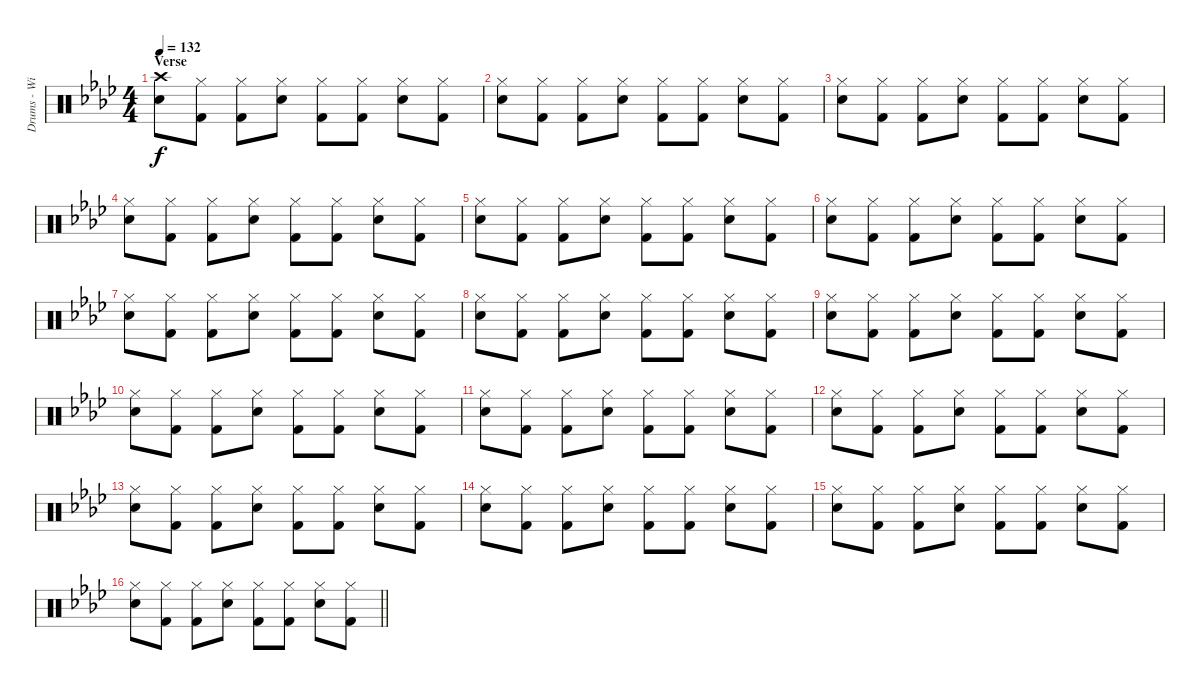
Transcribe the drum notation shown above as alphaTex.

\track ("Drums - Will" "Drums - Wi") {instrument percussion}
\staff {score}
\articulation defaults
\ts (4 4)
\section ("" "Verse")
\tempo 132
\clef neutral
\ks ab
("Crash high (hit)" "Electric Snare (hit)").8{dy f} ("Hi-Hat (closed)" "Kick (hit) 2").8 ("Hi-Hat (closed)" "Kick (hit) 2").8 ("Hi-Hat (closed)" "Electric Snare (hit)").8 ("Hi-Hat (closed)" "Kick (hit) 2").8 ("Hi-Hat (closed)" "Kick (hit) 2").8 ("Hi-Hat (closed)" "Electric Snare (hit)").8 ("Hi-Hat (closed)" "Kick (hit) 2").8 |
("Hi-Hat (closed)" "Electric Snare (hit)").8 ("Hi-Hat (closed)" "Kick (hit) 2").8 ("Hi-Hat (closed)" "Kick (hit) 2").8 ("Hi-Hat (closed)" "Electric Snare (hit)").8 ("Hi-Hat (closed)" "Kick (hit) 2").8 ("Hi-Hat (closed)" "Kick (hit) 2").8 ("Hi-Hat (closed)" "Electric Snare (hit)").8 ("Hi-Hat (closed)" "Kick (hit) 2").8 |
("Hi-Hat (closed)" "Electric Snare (hit)").8 ("Hi-Hat (closed)" "Kick (hit) 2").8 ("Hi-Hat (closed)" "Kick (hit) 2").8 ("Hi-Hat (closed)" "Electric Snare (hit)").8 ("Hi-Hat (closed)" "Kick (hit) 2").8 ("Hi-Hat (closed)" "Kick (hit) 2").8 ("Hi-Hat (closed)" "Electric Snare (hit)").8 ("Hi-Hat (closed)" "Kick (hit) 2").8 |
("Hi-Hat (closed)" "Electric Snare (hit)").8 ("Hi-Hat (closed)" "Kick (hit) 2").8 ("Hi-Hat (closed)" "Kick (hit) 2").8 ("Hi-Hat (closed)" "Electric Snare (hit)").8 ("Hi-Hat (closed)" "Kick (hit) 2").8 ("Hi-Hat (closed)" "Kick (hit) 2").8 ("Hi-Hat (closed)" "Electric Snare (hit)").8 ("Hi-Hat (closed)" "Kick (hit) 2").8 |
("Hi-Hat (closed)" "Electric Snare (hit)").8 ("Hi-Hat (closed)" "Kick (hit) 2").8 ("Hi-Hat (closed)" "Kick (hit) 2").8 ("Hi-Hat (closed)" "Electric Snare (hit)").8 ("Hi-Hat (closed)" "Kick (hit) 2").8 ("Hi-Hat (closed)" "Kick (hit) 2").8 ("Hi-Hat (closed)" "Electric Snare (hit)").8 ("Hi-Hat (closed)" "Kick (hit) 2").8 |
("Hi-Hat (closed)" "Electric Snare (hit)").8 ("Hi-Hat (closed)" "Kick (hit) 2").8 ("Hi-Hat (closed)" "Kick (hit) 2").8 ("Hi-Hat (closed)" "Electric Snare (hit)").8 ("Hi-Hat (closed)" "Kick (hit) 2").8 ("Hi-Hat (closed)" "Kick (hit) 2").8 ("Hi-Hat (closed)" "Electric Snare (hit)").8 ("Hi-Hat (closed)" "Kick (hit) 2").8 |
("Hi-Hat (closed)" "Electric Snare (hit)").8 ("Hi-Hat (closed)" "Kick (hit) 2").8 ("Hi-Hat (closed)" "Kick (hit) 2").8 ("Hi-Hat (closed)" "Electric Snare (hit)").8 ("Hi-Hat (closed)" "Kick (hit) 2").8 ("Hi-Hat (closed)" "Kick (hit) 2").8 ("Hi-Hat (closed)" "Electric Snare (hit)").8 ("Hi-Hat (closed)" "Kick (hit) 2").8 |
("Hi-Hat (closed)" "Electric Snare (hit)").8 ("Hi-Hat (closed)" "Kick (hit) 2").8 ("Hi-Hat (closed)" "Kick (hit) 2").8 ("Hi-Hat (closed)" "Electric Snare (hit)").8 ("Hi-Hat (closed)" "Kick (hit) 2").8 ("Hi-Hat (closed)" "Kick (hit) 2").8 ("Hi-Hat (closed)" "Electric Snare (hit)").8 ("Hi-Hat (closed)" "Kick (hit) 2").8 |
("Hi-Hat (closed)" "Electric Snare (hit)").8 ("Hi-Hat (closed)" "Kick (hit) 2").8 ("Hi-Hat (closed)" "Kick (hit) 2").8 ("Hi-Hat (closed)" "Electric Snare (hit)").8 ("Hi-Hat (closed)" "Kick (hit) 2").8 ("Hi-Hat (closed)" "Kick (hit) 2").8 ("Hi-Hat (closed)" "Electric Snare (hit)").8 ("Hi-Hat (closed)" "Kick (hit) 2").8 |
("Hi-Hat (closed)" "Electric Snare (hit)").8 ("Hi-Hat (closed)" "Kick (hit) 2").8 ("Hi-Hat (closed)" "Kick (hit) 2").8 ("Hi-Hat (closed)" "Electric Snare (hit)").8 ("Hi-Hat (closed)" "Kick (hit) 2").8 ("Hi-Hat (closed)" "Kick (hit) 2").8 ("Hi-Hat (closed)" "Electric Snare (hit)").8 ("Hi-Hat (closed)" "Kick (hit) 2").8 |
("Hi-Hat (closed)" "Electric Snare (hit)").8 ("Hi-Hat (closed)" "Kick (hit) 2").8 ("Hi-Hat (closed)" "Kick (hit) 2").8 ("Hi-Hat (closed)" "Electric Snare (hit)").8 ("Hi-Hat (closed)" "Kick (hit) 2").8 ("Hi-Hat (closed)" "Kick (hit) 2").8 ("Hi-Hat (closed)" "Electric Snare (hit)").8 ("Hi-Hat (closed)" "Kick (hit) 2").8 |
("Hi-Hat (closed)" "Electric Snare (hit)").8 ("Hi-Hat (closed)" "Kick (hit) 2").8 ("Hi-Hat (closed)" "Kick (hit) 2").8 ("Hi-Hat (closed)" "Electric Snare (hit)").8 ("Hi-Hat (closed)" "Kick (hit) 2").8 ("Hi-Hat (closed)" "Kick (hit) 2").8 ("Hi-Hat (closed)" "Electric Snare (hit)").8 ("Hi-Hat (closed)" "Kick (hit) 2").8 |
("Hi-Hat (closed)" "Electric Snare (hit)").8 ("Hi-Hat (closed)" "Kick (hit) 2").8 ("Hi-Hat (closed)" "Kick (hit) 2").8 ("Hi-Hat (closed)" "Electric Snare (hit)").8 ("Hi-Hat (closed)" "Kick (hit) 2").8 ("Hi-Hat (closed)" "Kick (hit) 2").8 ("Hi-Hat (closed)" "Electric Snare (hit)").8 ("Hi-Hat (closed)" "Kick (hit) 2").8 |
("Hi-Hat (closed)" "Electric Snare (hit)").8 ("Hi-Hat (closed)" "Kick (hit) 2").8 ("Hi-Hat (closed)" "Kick (hit) 2").8 ("Hi-Hat (closed)" "Electric Snare (hit)").8 ("Hi-Hat (closed)" "Kick (hit) 2").8 ("Hi-Hat (closed)" "Kick (hit) 2").8 ("Hi-Hat (closed)" "Electric Snare (hit)").8 ("Hi-Hat (closed)" "Kick (hit) 2").8 |
("Hi-Hat (closed)" "Electric Snare (hit)").8 ("Hi-Hat (closed)" "Kick (hit) 2").8 ("Hi-Hat (closed)" "Kick (hit) 2").8 ("Hi-Hat (closed)" "Electric Snare (hit)").8 ("Hi-Hat (closed)" "Kick (hit) 2").8 ("Hi-Hat (closed)" "Kick (hit) 2").8 ("Hi-Hat (closed)" "Electric Snare (hit)").8 ("Hi-Hat (closed)" "Kick (hit) 2").8 |
\barLineRight lightlight
("Hi-Hat (closed)" "Electric Snare (hit)").8 ("Hi-Hat (closed)" "Kick (hit) 2").8 ("Hi-Hat (closed)" "Kick (hit) 2").8 ("Hi-Hat (closed)" "Electric Snare (hit)").8 ("Hi-Hat (closed)" "Kick (hit) 2").8 ("Hi-Hat (closed)" "Kick (hit) 2").8 ("Hi-Hat (closed)" "Electric Snare (hit)").8 ("Hi-Hat (closed)" "Kick (hit) 2").8
